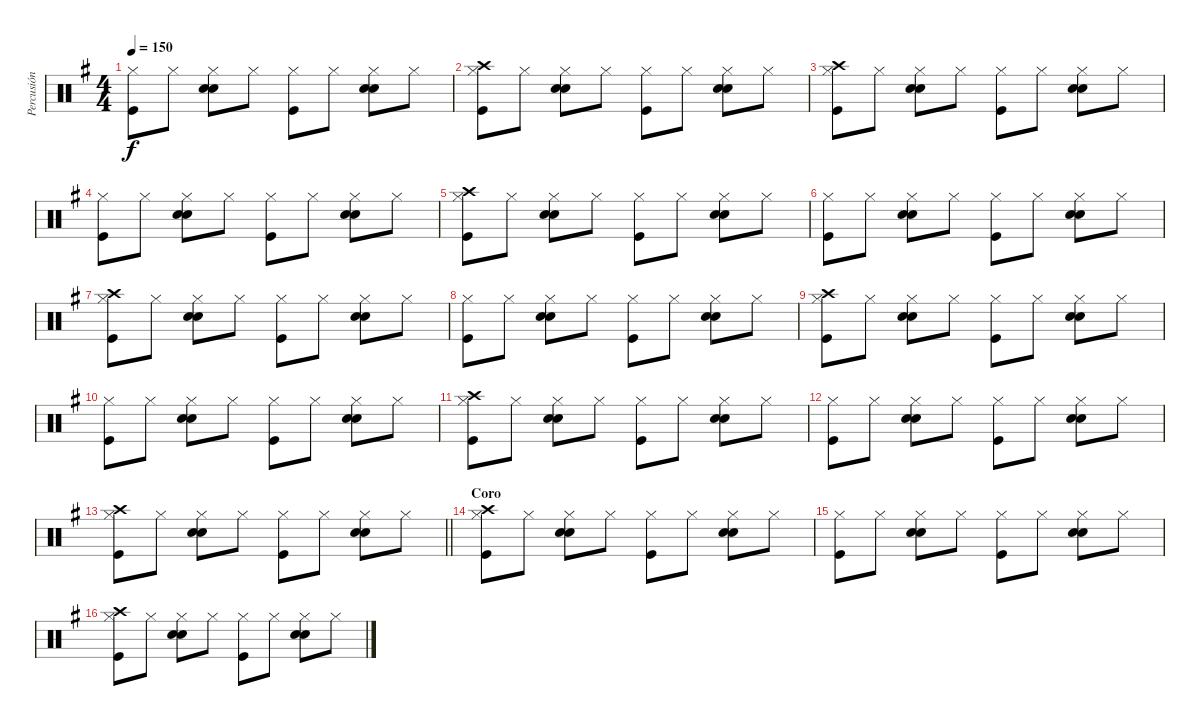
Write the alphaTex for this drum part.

\track ("Percusión" "Percusión") {instrument percussion}
\staff {score}
\articulation defaults
\ts (4 4)
\tempo 150
\clef neutral
\ks g
("Hi-Hat (closed)" "Kick (hit)").8{dy f} "Hi-Hat (closed)".8 ("Hi-Hat (closed)" "Snare (hit) 2" "Hand Clap (hit)").8 "Hi-Hat (closed)".8 ("Hi-Hat (closed)" "Kick (hit)").8 "Hi-Hat (closed)".8 ("Hi-Hat (closed)" "Snare (hit) 2" "Hand Clap (hit)").8 "Hi-Hat (closed)".8 |
("Hi-Hat (closed)" "Kick (hit)" "Crash high (hit)").8 "Hi-Hat (closed)".8 ("Hi-Hat (closed)" "Snare (hit) 2" "Hand Clap (hit)").8 "Hi-Hat (closed)".8 ("Hi-Hat (closed)" "Kick (hit)").8 "Hi-Hat (closed)".8 ("Hi-Hat (closed)" "Snare (hit) 2" "Hand Clap (hit)").8 "Hi-Hat (closed)".8 |
("Hi-Hat (closed)" "Kick (hit)" "Crash high (hit)").8 "Hi-Hat (closed)".8 ("Hi-Hat (closed)" "Snare (hit) 2" "Hand Clap (hit)").8 "Hi-Hat (closed)".8 ("Hi-Hat (closed)" "Kick (hit)").8 "Hi-Hat (closed)".8 ("Hi-Hat (closed)" "Snare (hit) 2" "Hand Clap (hit)").8 "Hi-Hat (closed)".8 |
("Hi-Hat (closed)" "Kick (hit)").8 "Hi-Hat (closed)".8 ("Hi-Hat (closed)" "Snare (hit) 2" "Hand Clap (hit)").8 "Hi-Hat (closed)".8 ("Hi-Hat (closed)" "Kick (hit)").8 "Hi-Hat (closed)".8 ("Hi-Hat (closed)" "Snare (hit) 2" "Hand Clap (hit)").8 "Hi-Hat (closed)".8 |
("Hi-Hat (closed)" "Kick (hit)" "Crash high (hit)").8 "Hi-Hat (closed)".8 ("Hi-Hat (closed)" "Snare (hit) 2" "Hand Clap (hit)").8 "Hi-Hat (closed)".8 ("Hi-Hat (closed)" "Kick (hit)").8 "Hi-Hat (closed)".8 ("Hi-Hat (closed)" "Snare (hit) 2" "Hand Clap (hit)").8 "Hi-Hat (closed)".8 |
("Hi-Hat (closed)" "Kick (hit)").8 "Hi-Hat (closed)".8 ("Hi-Hat (closed)" "Snare (hit) 2" "Hand Clap (hit)").8 "Hi-Hat (closed)".8 ("Hi-Hat (closed)" "Kick (hit)").8 "Hi-Hat (closed)".8 ("Hi-Hat (closed)" "Snare (hit) 2" "Hand Clap (hit)").8 "Hi-Hat (closed)".8 |
("Hi-Hat (closed)" "Kick (hit)" "Crash high (hit)").8 "Hi-Hat (closed)".8 ("Hi-Hat (closed)" "Snare (hit) 2" "Hand Clap (hit)").8 "Hi-Hat (closed)".8 ("Hi-Hat (closed)" "Kick (hit)").8 "Hi-Hat (closed)".8 ("Hi-Hat (closed)" "Snare (hit) 2" "Hand Clap (hit)").8 "Hi-Hat (closed)".8 |
("Hi-Hat (closed)" "Kick (hit)").8 "Hi-Hat (closed)".8 ("Hi-Hat (closed)" "Snare (hit) 2" "Hand Clap (hit)").8 "Hi-Hat (closed)".8 ("Hi-Hat (closed)" "Kick (hit)").8 "Hi-Hat (closed)".8 ("Hi-Hat (closed)" "Snare (hit) 2" "Hand Clap (hit)").8 "Hi-Hat (closed)".8 |
("Hi-Hat (closed)" "Kick (hit)" "Crash high (hit)").8 "Hi-Hat (closed)".8 ("Hi-Hat (closed)" "Snare (hit) 2" "Hand Clap (hit)").8 "Hi-Hat (closed)".8 ("Hi-Hat (closed)" "Kick (hit)").8 "Hi-Hat (closed)".8 ("Hi-Hat (closed)" "Snare (hit) 2" "Hand Clap (hit)").8 "Hi-Hat (closed)".8 |
("Hi-Hat (closed)" "Kick (hit)").8 "Hi-Hat (closed)".8 ("Hi-Hat (closed)" "Snare (hit) 2" "Hand Clap (hit)").8 "Hi-Hat (closed)".8 ("Hi-Hat (closed)" "Kick (hit)").8 "Hi-Hat (closed)".8 ("Hi-Hat (closed)" "Snare (hit) 2" "Hand Clap (hit)").8 "Hi-Hat (closed)".8 |
("Hi-Hat (closed)" "Kick (hit)" "Crash high (hit)").8 "Hi-Hat (closed)".8 ("Hi-Hat (closed)" "Snare (hit) 2" "Hand Clap (hit)").8 "Hi-Hat (closed)".8 ("Hi-Hat (closed)" "Kick (hit)").8 "Hi-Hat (closed)".8 ("Hi-Hat (closed)" "Snare (hit) 2" "Hand Clap (hit)").8 "Hi-Hat (closed)".8 |
("Hi-Hat (closed)" "Kick (hit)").8 "Hi-Hat (closed)".8 ("Hi-Hat (closed)" "Snare (hit) 2" "Hand Clap (hit)").8 "Hi-Hat (closed)".8 ("Hi-Hat (closed)" "Kick (hit)").8 "Hi-Hat (closed)".8 ("Hi-Hat (closed)" "Snare (hit) 2" "Hand Clap (hit)").8 "Hi-Hat (closed)".8 |
\barLineRight lightlight
("Hi-Hat (closed)" "Kick (hit)" "Crash high (hit)").8 "Hi-Hat (closed)".8 ("Hi-Hat (closed)" "Snare (hit) 2" "Hand Clap (hit)").8 "Hi-Hat (closed)".8 ("Hi-Hat (closed)" "Kick (hit)").8 "Hi-Hat (closed)".8 ("Hi-Hat (closed)" "Snare (hit) 2" "Hand Clap (hit)").8 "Hi-Hat (closed)".8 |
\section ("" "Coro")
("Hi-Hat (closed)" "Kick (hit)" "Crash high (hit)").8 "Hi-Hat (closed)".8 ("Hi-Hat (closed)" "Snare (hit) 2" "Hand Clap (hit)").8 "Hi-Hat (closed)".8 ("Hi-Hat (closed)" "Kick (hit)").8 "Hi-Hat (closed)".8 ("Hi-Hat (closed)" "Snare (hit) 2" "Hand Clap (hit)").8 "Hi-Hat (closed)".8 |
("Hi-Hat (closed)" "Kick (hit)").8 "Hi-Hat (closed)".8 ("Hi-Hat (closed)" "Snare (hit) 2" "Hand Clap (hit)").8 "Hi-Hat (closed)".8 ("Hi-Hat (closed)" "Kick (hit)").8 "Hi-Hat (closed)".8 ("Hi-Hat (closed)" "Snare (hit) 2" "Hand Clap (hit)").8 "Hi-Hat (closed)".8 |
("Hi-Hat (closed)" "Kick (hit)" "Crash high (hit)").8 "Hi-Hat (closed)".8 ("Hi-Hat (closed)" "Snare (hit) 2" "Hand Clap (hit)").8 "Hi-Hat (closed)".8 ("Hi-Hat (closed)" "Kick (hit)").8 "Hi-Hat (closed)".8 ("Hi-Hat (closed)" "Snare (hit) 2" "Hand Clap (hit)").8 "Hi-Hat (closed)".8
